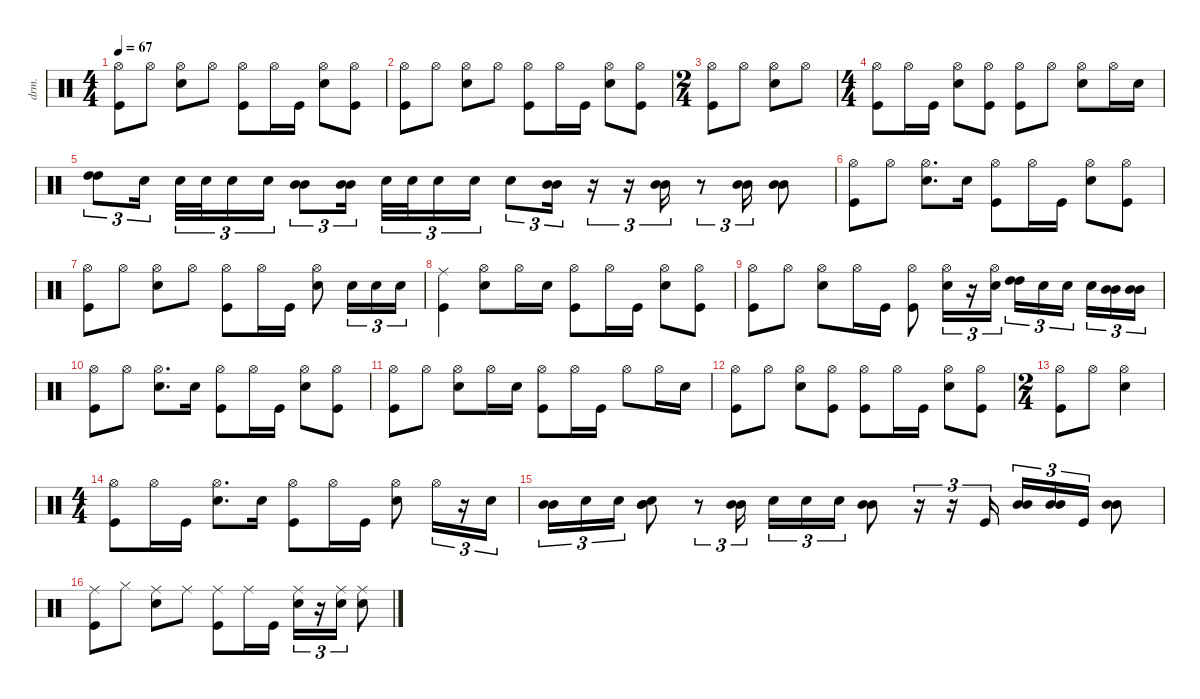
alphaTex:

\defaultSystemsLayout 4
\hideDynamics
\bracketExtendMode nobrackets
\otherSystemsTrackNameOrientation horizontal
\track ("Mitch Mitchell" "drm.") {instrument percussion}
\staff {score}
\articulation defaults
\ts (4 4)
\tempo 67
\clef neutral
\ks c
("Hi-Hat (open)" "Kick (hit)").8{dy mp} "Hi-Hat (open)".8 ("Hi-Hat (open)" "Snare (hit) 2").8 "Hi-Hat (open)".8 ("Hi-Hat (open)" "Kick (hit)").8 "Hi-Hat (open)".16 "Kick (hit)".16{dy f} ("Hi-Hat (open)" "Snare (hit) 2").8{dy mp} ("Hi-Hat (open)" "Kick (hit)").8 |
("Hi-Hat (open)" "Kick (hit)").8 "Hi-Hat (open)".8 ("Hi-Hat (open)" "Snare (hit) 2").8 "Hi-Hat (open)".8 ("Hi-Hat (open)" "Kick (hit)").8 "Hi-Hat (open)".16 "Kick (hit)".16{dy f} ("Hi-Hat (open)" "Snare (hit) 2").8{dy mp} ("Hi-Hat (open)" "Kick (hit)").8 |
\ts (2 4)
("Hi-Hat (open)" "Kick (hit)").8 "Hi-Hat (open)".8 ("Hi-Hat (open)" "Snare (hit) 2").8 "Hi-Hat (open)".8 |
\ts (4 4)
("Hi-Hat (open)" "Kick (hit)").8 "Hi-Hat (open)".16 "Kick (hit)".16{dy f} ("Hi-Hat (open)" "Snare (hit) 2").8{dy mp} ("Hi-Hat (open)" "Kick (hit)").8 ("Hi-Hat (open)" "Kick (hit)").8 "Hi-Hat (open)".8 ("Hi-Hat (open)" "Snare (hit) 2").8 "Hi-Hat (open)".16 "Snare (hit) 2".16 |
("High Tom (hit)" "High Tom (hit)").8{tu (3 2) dy ff} "Snare (hit) 2".16{tu (3 2)} "Snare (hit) 2".32{tu (3 2) dy mp} "Snare (hit) 2".32{tu (3 2)} "Snare (hit) 2".16{tu (3 2)} "Snare (hit) 2".16{tu (3 2) dy ff} ("Mid Tom (hit)" "Mid Tom (hit)").8{tu (3 2)} ("Mid Tom (hit)" "Mid Tom (hit)").16{tu (3 2)} "Snare (hit) 2".32{tu (3 2) dy f} "Snare (hit) 2".32{tu (3 2)} "Snare (hit) 2".16{tu (3 2)} "Snare (hit) 2".16{tu (3 2) dy fff} "Snare (hit) 2".8{tu (3 2)} ("Mid Tom (hit)" "Mid Tom (hit)").16{tu (3 2)} r.16{tu (3 2)} r.16{tu (3 2)} ("Mid Tom (hit)" "Mid Tom (hit)").16{tu (3 2)} r.8{tu (3 2)} ("Mid Tom (hit)" "Mid Tom (hit)").16{tu (3 2)} ("Mid Tom (hit)" "Mid Tom (hit)").8 |
("Hi-Hat (open)" "Kick (hit)").8{dy mp} "Hi-Hat (open)".8 ("Hi-Hat (open)" "Snare (hit) 2").8{d} "Snare (hit) 2".16 ("Hi-Hat (open)" "Kick (hit)").8 "Hi-Hat (open)".16 "Kick (hit)".16{dy f} ("Hi-Hat (open)" "Snare (hit) 2").8{dy mp} ("Hi-Hat (open)" "Kick (hit)").8 |
("Hi-Hat (open)" "Kick (hit)").8 "Hi-Hat (open)".8 ("Hi-Hat (open)" "Snare (hit) 2").8 "Hi-Hat (open)".8 ("Hi-Hat (open)" "Kick (hit)").8 "Hi-Hat (open)".16 "Kick (hit)".16{dy f} ("Hi-Hat (open)" "Snare (hit) 2").8{dy mp} "Snare (hit) 2".16{tu (3 2)} "Snare (hit) 2".16{tu (3 2)} "Snare (hit) 2".16{tu (3 2)} |
("Ride (middle)" "Kick (hit)").4{dy f} ("Hi-Hat (open)" "Snare (hit) 2").8{dy mp} "Hi-Hat (open)".16 "Snare (hit) 2".16 ("Hi-Hat (open)" "Kick (hit)").8 "Hi-Hat (open)".16 "Kick (hit)".16{dy f} ("Hi-Hat (open)" "Snare (hit) 2").8{dy mp} ("Hi-Hat (open)" "Kick (hit)").8 |
("Hi-Hat (open)" "Kick (hit)").8 "Hi-Hat (open)".8 ("Hi-Hat (open)" "Snare (hit) 2").8 "Hi-Hat (open)".16 "Kick (hit)".16{dy f} ("Hi-Hat (open)" "Kick (hit)").8{dy mp} ("Hi-Hat (open)" "Snare (hit) 2").16{tu (3 2)} r.16{tu (3 2)} ("Hi-Hat (open)" "Snare (hit) 2").16{tu (3 2)} ("High Tom (hit)" "High Tom (hit)").16{tu (3 2) dy fff} "Snare (hit) 2".16{tu (3 2) dy mp} "Snare (hit) 2".16{tu (3 2)} "Snare (hit) 2".16{tu (3 2) dy fff} ("Mid Tom (hit)" "Mid Tom (hit)").16{tu (3 2) dy mf} ("Mid Tom (hit)" "Mid Tom (hit)").16{tu (3 2) dy mp} |
("Hi-Hat (open)" "Kick (hit)").8 "Hi-Hat (open)".8 ("Hi-Hat (open)" "Snare (hit) 2").8{d} "Snare (hit) 2".16 ("Hi-Hat (open)" "Kick (hit)").8 "Hi-Hat (open)".16 "Kick (hit)".16{dy f} ("Hi-Hat (open)" "Snare (hit) 2").8{dy mp} ("Hi-Hat (open)" "Kick (hit)").8 |
("Hi-Hat (open)" "Kick (hit)").8 "Hi-Hat (open)".8 ("Hi-Hat (open)" "Snare (hit) 2").8 "Hi-Hat (open)".16 "Snare (hit) 2".16 ("Hi-Hat (open)" "Kick (hit)").8 "Hi-Hat (open)".16 "Kick (hit)".16{dy f} "Hi-Hat (open)".8{dy mp} "Hi-Hat (open)".16 "Snare (hit) 2".16 |
("Hi-Hat (open)" "Kick (hit)").8 "Hi-Hat (open)".8 ("Hi-Hat (open)" "Snare (hit) 2").8 ("Hi-Hat (open)" "Kick (hit)").8 ("Hi-Hat (open)" "Kick (hit)").8 "Hi-Hat (open)".16 "Kick (hit)".16{dy f} ("Hi-Hat (open)" "Snare (hit) 2").8{dy mp} ("Hi-Hat (open)" "Kick (hit)").8 |
\ts (2 4)
("Hi-Hat (open)" "Kick (hit)").8 "Hi-Hat (open)".8 ("Hi-Hat (open)" "Snare (hit) 2").4 |
\ts (4 4)
("Hi-Hat (open)" "Kick (hit)").8 "Hi-Hat (open)".16 "Kick (hit)".16{dy f} ("Hi-Hat (open)" "Snare (hit) 2").8{d dy mp} "Snare (hit) 2".16 ("Hi-Hat (open)" "Kick (hit)").8 "Hi-Hat (open)".16 "Kick (hit)".16{dy f} ("Hi-Hat (open)" "Snare (hit) 2").8{dy mp} "Hi-Hat (open)".16{tu (3 2)} r.16{tu (3 2)} "Snare (hit) 2".16{tu (3 2) dy mf} |
("Mid Tom (hit)" "Mid Tom (hit)").16{tu (3 2) dy fff} "Snare (hit) 2".16{tu (3 2) dy f} "Snare (hit) 2".16{tu (3 2)} ("Mid Tom (hit)" "Snare (hit) 2" "Mid Tom (hit)").8{dy fff} r.8{tu (3 2)} ("Mid Tom (hit)" "Mid Tom (hit)").16{tu (3 2)} "Snare (hit) 2".16{tu (3 2) dy f} "Snare (hit) 2".16{tu (3 2)} "Snare (hit) 2".16{tu (3 2)} ("Mid Tom (hit)" "Mid Tom (hit)").8{dy fff} r.16{tu (3 2)} r.16{tu (3 2)} "Kick (hit)".16{tu (3 2)} ("Mid Tom (hit)" "Mid Tom (hit)").16{tu (3 2)} ("Mid Tom (hit)" "Mid Tom (hit)").16{tu (3 2)} "Kick (hit)".16{tu (3 2)} ("Mid Tom (hit)" "Mid Tom (hit)").8 |
("Ride (middle)" "Kick (hit)").8{dy f} "Hi-Hat (closed)".8 ("Ride (middle)" "Snare (hit) 2").8 "Ride (middle)".8 ("Ride (middle)" "Kick (hit)").8 "Ride (middle)".16 "Kick (hit)".16 ("Ride (middle)" "Snare (hit) 2").16{tu (3 2)} r.16{tu (3 2)} ("Ride (middle)" "Snare (hit) 2").16{tu (3 2)} ("Ride (middle)" "Snare (hit) 2").8
